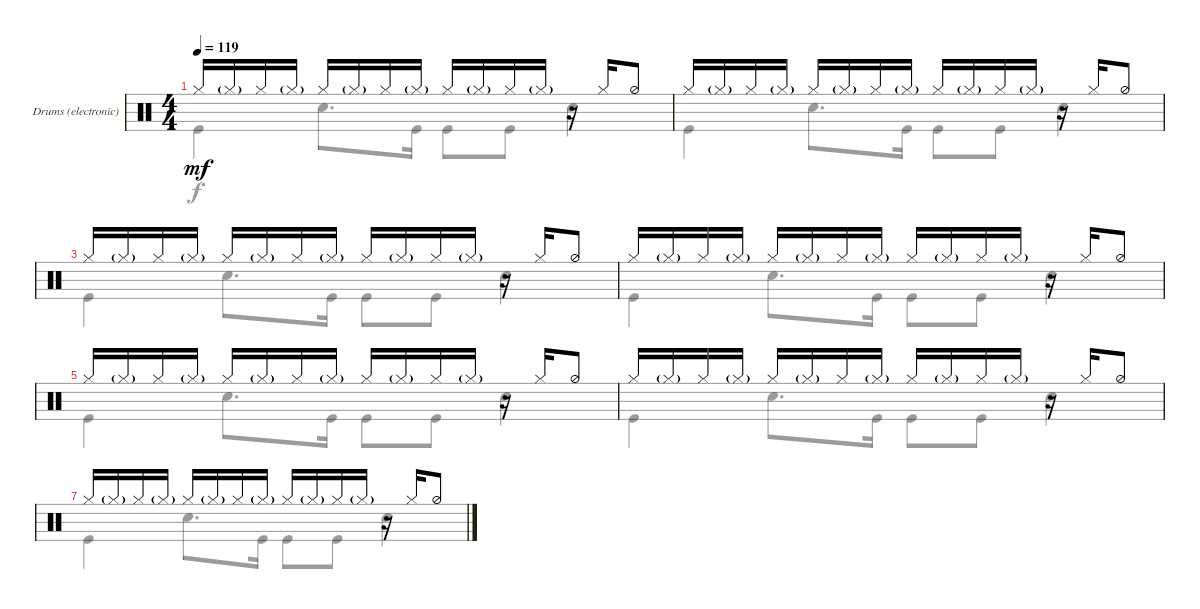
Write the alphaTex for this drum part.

\defaultSystemsLayout 4
\bracketExtendMode groupsimilarinstruments
\useSystemSignSeparator
\multiBarRest
\multiTrackTrackNamePolicy allsystems
\firstSystemTrackNameMode fullname
\firstSystemTrackNameOrientation horizontal
\otherSystemsTrackNameOrientation horizontal
\defaultBarNumberDisplay FirstOfSystem
\track ("Drums (electronic)" "Dr.") {multiBarRest instrument percussion}
\staff {score}
\articulation defaults
\voice
\ts (4 4)
\tempo 119
\clef neutral
\ks aminor "Hi-Hat (closed)".16{dy mf} "Hi-Hat (closed)"{g}.16 "Hi-Hat (closed)".16 "Hi-Hat (closed)"{g}.16 "Hi-Hat (closed)".16 "Hi-Hat (closed)"{g}.16 "Hi-Hat (closed)".16 "Hi-Hat (closed)"{g}.16 "Hi-Hat (closed)".16 "Hi-Hat (closed)"{g}.16 "Hi-Hat (closed)".16 "Hi-Hat (closed)"{g}.16
r.16 "Hi-Hat (closed)".16 "Hi-Hat (half)".8 |
"Hi-Hat (closed)".16 "Hi-Hat (closed)"{g}.16 "Hi-Hat (closed)".16 "Hi-Hat (closed)"{g}.16 "Hi-Hat (closed)".16 "Hi-Hat (closed)"{g}.16 "Hi-Hat (closed)".16 "Hi-Hat (closed)"{g}.16 "Hi-Hat (closed)".16 "Hi-Hat (closed)"{g}.16 "Hi-Hat (closed)".16 "Hi-Hat (closed)"{g}.16 r.16 "Hi-Hat (closed)".16 "Hi-Hat (half)".8 |
"Hi-Hat (closed)".16 "Hi-Hat (closed)"{g}.16 "Hi-Hat (closed)".16 "Hi-Hat (closed)"{g}.16 "Hi-Hat (closed)".16 "Hi-Hat (closed)"{g}.16 "Hi-Hat (closed)".16 "Hi-Hat (closed)"{g}.16 "Hi-Hat (closed)".16 "Hi-Hat (closed)"{g}.16 "Hi-Hat (closed)".16 "Hi-Hat (closed)"{g}.16 r.16 "Hi-Hat (closed)".16 "Hi-Hat (half)".8 |
"Hi-Hat (closed)".16 "Hi-Hat (closed)"{g}.16 "Hi-Hat (closed)".16 "Hi-Hat (closed)"{g}.16 "Hi-Hat (closed)".16 "Hi-Hat (closed)"{g}.16 "Hi-Hat (closed)".16 "Hi-Hat (closed)"{g}.16 "Hi-Hat (closed)".16 "Hi-Hat (closed)"{g}.16 "Hi-Hat (closed)".16 "Hi-Hat (closed)"{g}.16 r.16 "Hi-Hat (closed)".16 "Hi-Hat (half)".8 |
"Hi-Hat (closed)".16 "Hi-Hat (closed)"{g}.16 "Hi-Hat (closed)".16 "Hi-Hat (closed)"{g}.16 "Hi-Hat (closed)".16 "Hi-Hat (closed)"{g}.16 "Hi-Hat (closed)".16 "Hi-Hat (closed)"{g}.16 "Hi-Hat (closed)".16 "Hi-Hat (closed)"{g}.16 "Hi-Hat (closed)".16 "Hi-Hat (closed)"{g}.16 r.16 "Hi-Hat (closed)".16 "Hi-Hat (half)".8 |
"Hi-Hat (closed)".16 "Hi-Hat (closed)"{g}.16 "Hi-Hat (closed)".16 "Hi-Hat (closed)"{g}.16 "Hi-Hat (closed)".16 "Hi-Hat (closed)"{g}.16 "Hi-Hat (closed)".16 "Hi-Hat (closed)"{g}.16 "Hi-Hat (closed)".16 "Hi-Hat (closed)"{g}.16 "Hi-Hat (closed)".16 "Hi-Hat (closed)"{g}.16 r.16 "Hi-Hat (closed)".16 "Hi-Hat (half)".8 |
"Hi-Hat (closed)".16 "Hi-Hat (closed)"{g}.16 "Hi-Hat (closed)".16 "Hi-Hat (closed)"{g}.16 "Hi-Hat (closed)".16 "Hi-Hat (closed)"{g}.16 "Hi-Hat (closed)".16 "Hi-Hat (closed)"{g}.16 "Hi-Hat (closed)".16 "Hi-Hat (closed)"{g}.16 "Hi-Hat (closed)".16 "Hi-Hat (closed)"{g}.16 r.16 "Hi-Hat (closed)".16 "Hi-Hat (half)".8
\voice
\clef neutral
\ottava regular
\simile none
\ks aminor "Kick (hit)".4{dy f} "Snare (hit) 2".8{d} "Kick (hit)".16 "Kick (hit)".8 "Kick (hit)".8 "Snare (hit) 2".4
|
"Kick (hit)".4 "Snare (hit) 2".8{d} "Kick (hit)".16 "Kick (hit)".8 "Kick (hit)".8 "Snare (hit) 2".4 |
"Kick (hit)".4 "Snare (hit) 2".8{d} "Kick (hit)".16 "Kick (hit)".8 "Kick (hit)".8 "Snare (hit) 2".4 |
"Kick (hit)".4 "Snare (hit) 2".8{d} "Kick (hit)".16 "Kick (hit)".8 "Kick (hit)".8 "Snare (hit) 2".4 |
"Kick (hit)".4 "Snare (hit) 2".8{d} "Kick (hit)".16 "Kick (hit)".8 "Kick (hit)".8 "Snare (hit) 2".4 |
"Kick (hit)".4 "Snare (hit) 2".8{d} "Kick (hit)".16 "Kick (hit)".8 "Kick (hit)".8 "Snare (hit) 2".4 |
"Kick (hit)".4 "Snare (hit) 2".8{d} "Kick (hit)".16 "Kick (hit)".8 "Kick (hit)".8 "Snare (hit) 2".4
